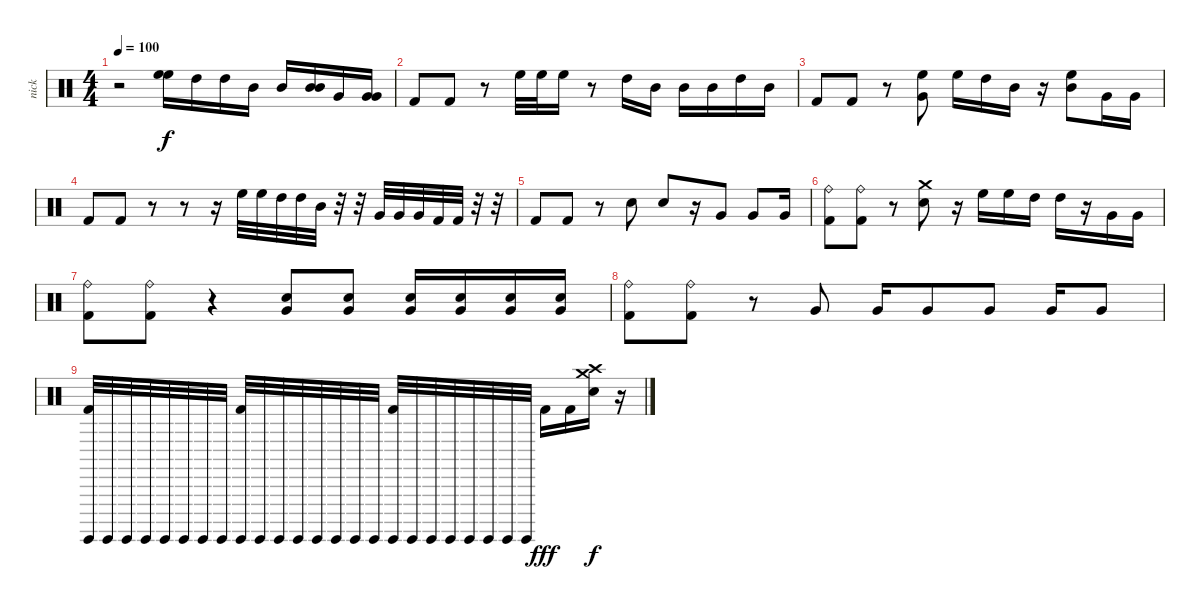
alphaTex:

\track ("nick" "nick") {instrument percussion}
\staff {score}
\articulation defaults
\ts (4 4)
\tempo 100
\clef neutral
\ks c
r.2{dy f} ("High Floor Tom (hit)" "High Floor Tom (hit)").16 "High Tom (hit)".16 "High Tom (hit)".16 "Mid Tom (hit)".16 "Mid Tom (hit)".16 ("Mid Tom (hit)" "Mid Tom (hit)").16 "Very Low Tom (hit)".16 ("Very Low Tom (hit)" "Very Low Tom (hit)").16 |
"Kick (hit) 2".8 "Kick (hit) 2".8 r.8 "High Floor Tom (hit)".32 "High Floor Tom (hit)".32 "High Floor Tom (hit)".16 r.8 "High Tom (hit)".16 "Mid Tom (hit)".16 "Mid Tom (hit)".16 "Mid Tom (hit)".16 "High Tom (hit)".16 "Mid Tom (hit)".16 |
"Kick (hit) 2".8 "Kick (hit) 2".8 r.8 ("High Floor Tom (hit)" "Very Low Tom (hit)").8 "High Floor Tom (hit)".16 "High Tom (hit)".16 "Mid Tom (hit)".16 r.16 ("High Floor Tom (hit)" "Mid Tom (hit)").8 "Very Low Tom (hit)".16 "Very Low Tom (hit)".16 |
"Kick (hit) 2".8 "Kick (hit) 2".8 r.8 r.8 r.16 "High Floor Tom (hit)".32 "High Floor Tom (hit)".32 "High Tom (hit)".32 "High Tom (hit)".32 "Mid Tom (hit)".32 r.32 r.32 "Very Low Tom (hit)".32 "Very Low Tom (hit)".32 "Very Low Tom (hit)".32 "Kick (hit) 2".32 "Kick (hit) 2".32 r.32 r.32 |
"Kick (hit) 2".8 "Kick (hit) 2".8 r.8 "Electric Snare (hit)".8 "Electric Snare (hit)".8 r.16 "Very Low Tom (hit)".8 "Very Low Tom (hit)".8 "Very Low Tom (hit)".16 |
("Ride (bell)" "Kick (hit) 2").8 ("Ride (bell)" "Kick (hit) 2").8 r.8 ("Crash medium (hit)" "Electric Snare (hit)").8 r.16 "High Floor Tom (hit)".16 "High Floor Tom (hit)".16 "High Tom (hit)".16 "High Tom (hit)".16 r.16 "Very Low Tom (hit)".16 "Very Low Tom (hit)".16 |
("Ride (bell)" "Kick (hit) 2").8 ("Ride (bell)" "Kick (hit) 2").8 r.4 ("Very Low Tom (hit)" "Electric Snare (hit)").8 ("Very Low Tom (hit)" "Electric Snare (hit)").8 ("Very Low Tom (hit)" "Electric Snare (hit)").16 ("Very Low Tom (hit)" "Electric Snare (hit)").16 ("Very Low Tom (hit)" "Electric Snare (hit)").16 ("Very Low Tom (hit)" "Electric Snare (hit)").16 |
("Kick (hit) 2" "Ride (bell)").8 ("Kick (hit) 2" "Ride (bell)").8 r.8 "Very Low Tom (hit)".8 "Very Low Tom (hit)".16 "Very Low Tom (hit)".8 "Very Low Tom (hit)".8 "Very Low Tom (hit)".16 "Very Low Tom (hit)".8 |
("Kick (hit) 2" "Surdo (hit)").32 "Surdo (hit)".32 "Surdo (hit)".32 "Surdo (hit)".32 "Surdo (hit)".32 "Surdo (hit)".32 "Surdo (hit)".32 "Surdo (hit)".32 ("Kick (hit) 2" "Surdo (hit)").32 "Surdo (hit)".32 "Surdo (hit)".32 "Surdo (hit)".32 "Surdo (hit)".32 "Surdo (hit)".32 "Surdo (hit)".32 "Surdo (hit)".32 ("Kick (hit) 2" "Surdo (hit)").32 "Surdo (hit)".32 "Surdo (hit)".32 "Surdo (hit)".32 "Surdo (hit)".32 "Surdo (hit)".32 "Surdo (hit)".32 "Surdo (hit)".32 "Kick (hit) 2".16{dy fff} "Kick (hit) 2".16 ("Electric Snare (hit)" "Crash medium (hit)" "Crash high (hit)").16{dy f} r.16
